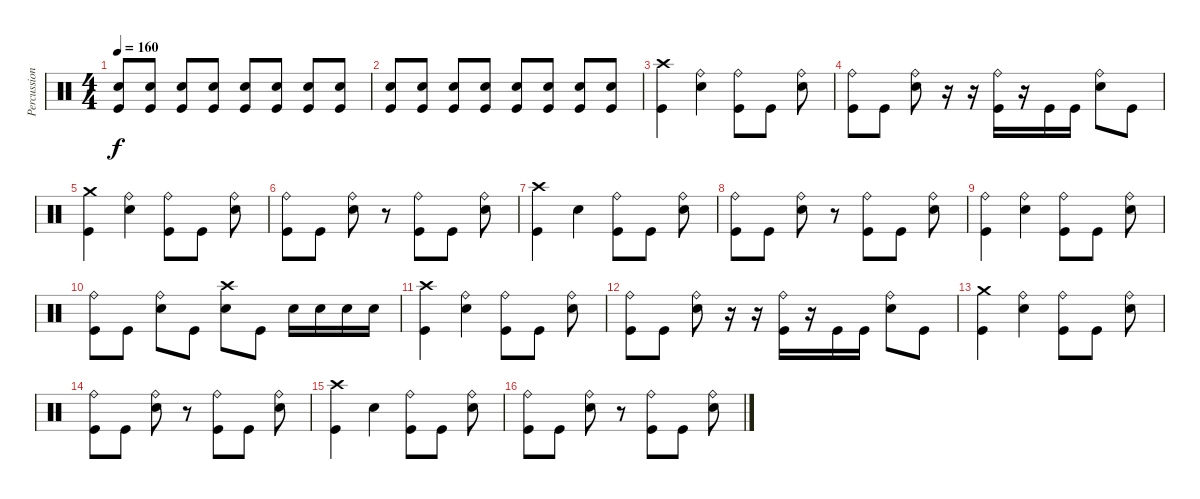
\track ("Percussion" "Percussion") {instrument percussion}
\staff {score}
\articulation defaults
\ts (4 4)
\tempo 160
\clef neutral
\ks c
("Kick (hit)" "Electric Snare (hit)").8{dy f} ("Kick (hit)" "Electric Snare (hit)").8 ("Kick (hit)" "Electric Snare (hit)").8 ("Kick (hit)" "Electric Snare (hit)").8 ("Kick (hit)" "Electric Snare (hit)").8 ("Kick (hit)" "Electric Snare (hit)").8 ("Kick (hit)" "Electric Snare (hit)").8 ("Kick (hit)" "Electric Snare (hit)").8 |
("Kick (hit)" "Electric Snare (hit)").8 ("Kick (hit)" "Electric Snare (hit)").8 ("Kick (hit)" "Electric Snare (hit)").8 ("Kick (hit)" "Electric Snare (hit)").8 ("Kick (hit)" "Electric Snare (hit)").8 ("Kick (hit)" "Electric Snare (hit)").8 ("Kick (hit)" "Electric Snare (hit)").8 ("Kick (hit)" "Electric Snare (hit)").8 |
("Kick (hit)" "Crash high (hit)").4 ("Electric Snare (hit)" "Ride (bell)").4 ("Kick (hit)" "Ride (bell)").8 "Kick (hit)".8 ("Electric Snare (hit)" "Ride (bell)").8 |
("Ride (bell)" "Kick (hit)").8 "Kick (hit)".8 ("Ride (bell)" "Electric Snare (hit)").8 r.16 r.16 ("Ride (bell)" "Kick (hit)").16 r.16 "Kick (hit)".16 "Kick (hit)".16 ("Ride (bell)" "Electric Snare (hit)").8 "Kick (hit)".8 |
("Crash medium (hit)" "Kick (hit)").4 ("Ride (bell)" "Electric Snare (hit)").4 ("Ride (bell)" "Kick (hit)").8 "Kick (hit)".8 ("Ride (bell)" "Electric Snare (hit)").8 |
("Ride (bell)" "Kick (hit)").8 "Kick (hit)".8 ("Ride (bell)" "Electric Snare (hit)").8 r.8 ("Ride (bell)" "Kick (hit)").8 "Kick (hit)".8 ("Ride (bell)" "Electric Snare (hit)").8 |
("Crash high (hit)" "Kick (hit)").4 "Electric Snare (hit)".4 ("Ride (bell)" "Kick (hit)").8 "Kick (hit)".8 ("Ride (bell)" "Electric Snare (hit)").8 |
("Ride (bell)" "Kick (hit)").8 "Kick (hit)".8 ("Ride (bell)" "Electric Snare (hit)").8 r.8 ("Ride (bell)" "Kick (hit)").8 "Kick (hit)".8 ("Ride (bell)" "Electric Snare (hit)").8 |
("Ride (bell)" "Kick (hit)").4 ("Ride (bell)" "Electric Snare (hit)").4 ("Ride (bell)" "Kick (hit)").8 "Kick (hit)".8 ("Ride (bell)" "Electric Snare (hit)").8 |
("Ride (bell)" "Kick (hit)").8 "Kick (hit)".8 ("Ride (bell)" "Electric Snare (hit)").8 "Kick (hit)".8 ("Crash high (hit)" "Electric Snare (hit)").8 "Kick (hit)".8 "Electric Snare (hit)".16 "Electric Snare (hit)".16 "Electric Snare (hit)".16 "Electric Snare (hit)".16 |
("Kick (hit)" "Crash high (hit)").4 ("Electric Snare (hit)" "Ride (bell)").4 ("Kick (hit)" "Ride (bell)").8 "Kick (hit)".8 ("Electric Snare (hit)" "Ride (bell)").8 |
("Ride (bell)" "Kick (hit)").8 "Kick (hit)".8 ("Ride (bell)" "Electric Snare (hit)").8 r.16 r.16 ("Ride (bell)" "Kick (hit)").16 r.16 "Kick (hit)".16 "Kick (hit)".16 ("Ride (bell)" "Electric Snare (hit)").8 "Kick (hit)".8 |
("Crash medium (hit)" "Kick (hit)").4 ("Ride (bell)" "Electric Snare (hit)").4 ("Ride (bell)" "Kick (hit)").8 "Kick (hit)".8 ("Ride (bell)" "Electric Snare (hit)").8 |
("Ride (bell)" "Kick (hit)").8 "Kick (hit)".8 ("Ride (bell)" "Electric Snare (hit)").8 r.8 ("Ride (bell)" "Kick (hit)").8 "Kick (hit)".8 ("Ride (bell)" "Electric Snare (hit)").8 |
("Crash high (hit)" "Kick (hit)").4 "Electric Snare (hit)".4 ("Ride (bell)" "Kick (hit)").8 "Kick (hit)".8 ("Ride (bell)" "Electric Snare (hit)").8 |
("Ride (bell)" "Kick (hit)").8 "Kick (hit)".8 ("Ride (bell)" "Electric Snare (hit)").8 r.8 ("Ride (bell)" "Kick (hit)").8 "Kick (hit)".8 ("Ride (bell)" "Electric Snare (hit)").8
